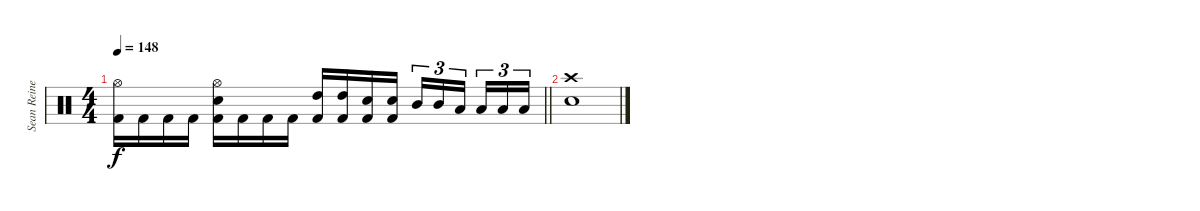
\track ("Sean Reinert" "Sean Reine") {instrument percussion}
\staff {score}
\articulation defaults
\ts (4 4)
\tempo 148
\clef neutral
\barLineRight lightlight
\ks c
("Hi-Hat (open)" "Kick (hit) 2").16{dy f} "Kick (hit) 2".16 "Kick (hit) 2".16 "Kick (hit) 2".16 ("Hi-Hat (open)" "Electric Snare (hit)" "Kick (hit) 2").16 "Kick (hit) 2".16 "Kick (hit) 2".16 "Kick (hit) 2".16 ("High Tom (hit)" "Kick (hit) 2").16 ("High Tom (hit)" "Kick (hit) 2").16 ("Electric Snare (hit)" "Kick (hit) 2").16 ("Electric Snare (hit)" "Kick (hit) 2").16 "Mid Tom (hit)".16{tu (3 2)} "Mid Tom (hit)".16{tu (3 2)} "Low Tom (hit)".16{tu (3 2) beam splitsecondary} "Low Tom (hit)".16{tu (3 2)} "Low Tom (hit)".16{tu (3 2)} "Low Tom (hit)".16{tu (3 2)} |
("Crash high (hit)" "Electric Snare (hit)").1
